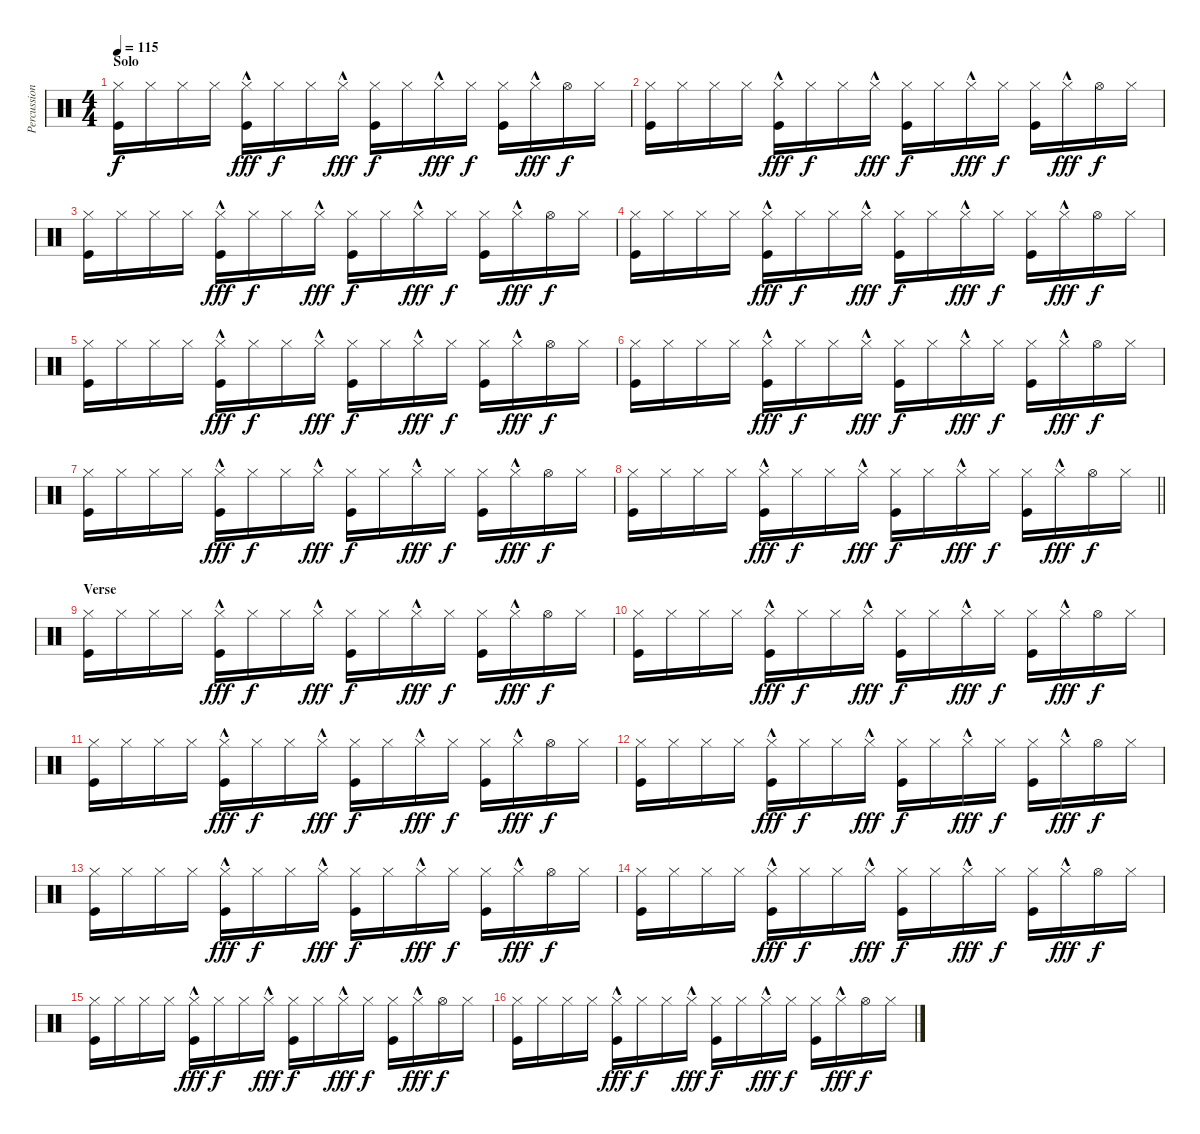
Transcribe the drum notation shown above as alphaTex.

\track ("Percussion" "Percussion") {instrument percussion}
\staff {score}
\articulation defaults
\ts (4 4)
\section ("" "Solo")
\tempo 115
\clef neutral
\ks c
("Hi-Hat (closed)" "Kick (hit)").16{dy f} "Hi-Hat (closed)".16 "Hi-Hat (closed)".16 "Hi-Hat (closed)".16 ("Hi-Hat (closed)"{hac} "Kick (hit)").16{dy fff} "Hi-Hat (closed)".16{dy f} "Hi-Hat (closed)".16 "Hi-Hat (closed)"{hac}.16{dy fff} ("Hi-Hat (closed)" "Kick (hit)").16{dy f} "Hi-Hat (closed)".16 "Hi-Hat (closed)"{hac}.16{dy fff} "Hi-Hat (closed)".16{dy f} ("Hi-Hat (closed)" "Kick (hit)").16 "Hi-Hat (closed)"{hac}.16{dy fff} "Hi-Hat (open)".16{dy f} "Hi-Hat (closed)".16 |
("Hi-Hat (closed)" "Kick (hit)").16 "Hi-Hat (closed)".16 "Hi-Hat (closed)".16 "Hi-Hat (closed)".16 ("Hi-Hat (closed)"{hac} "Kick (hit)").16{dy fff} "Hi-Hat (closed)".16{dy f} "Hi-Hat (closed)".16 "Hi-Hat (closed)"{hac}.16{dy fff} ("Hi-Hat (closed)" "Kick (hit)").16{dy f} "Hi-Hat (closed)".16 "Hi-Hat (closed)"{hac}.16{dy fff} "Hi-Hat (closed)".16{dy f} ("Hi-Hat (closed)" "Kick (hit)").16 "Hi-Hat (closed)"{hac}.16{dy fff} "Hi-Hat (open)".16{dy f} "Hi-Hat (closed)".16 |
("Hi-Hat (closed)" "Kick (hit)").16 "Hi-Hat (closed)".16 "Hi-Hat (closed)".16 "Hi-Hat (closed)".16 ("Hi-Hat (closed)"{hac} "Kick (hit)").16{dy fff} "Hi-Hat (closed)".16{dy f} "Hi-Hat (closed)".16 "Hi-Hat (closed)"{hac}.16{dy fff} ("Hi-Hat (closed)" "Kick (hit)").16{dy f} "Hi-Hat (closed)".16 "Hi-Hat (closed)"{hac}.16{dy fff} "Hi-Hat (closed)".16{dy f} ("Hi-Hat (closed)" "Kick (hit)").16 "Hi-Hat (closed)"{hac}.16{dy fff} "Hi-Hat (open)".16{dy f} "Hi-Hat (closed)".16 |
("Hi-Hat (closed)" "Kick (hit)").16 "Hi-Hat (closed)".16 "Hi-Hat (closed)".16 "Hi-Hat (closed)".16 ("Hi-Hat (closed)"{hac} "Kick (hit)").16{dy fff} "Hi-Hat (closed)".16{dy f} "Hi-Hat (closed)".16 "Hi-Hat (closed)"{hac}.16{dy fff} ("Hi-Hat (closed)" "Kick (hit)").16{dy f} "Hi-Hat (closed)".16 "Hi-Hat (closed)"{hac}.16{dy fff} "Hi-Hat (closed)".16{dy f} ("Hi-Hat (closed)" "Kick (hit)").16 "Hi-Hat (closed)"{hac}.16{dy fff} "Hi-Hat (open)".16{dy f} "Hi-Hat (closed)".16 |
("Hi-Hat (closed)" "Kick (hit)").16 "Hi-Hat (closed)".16 "Hi-Hat (closed)".16 "Hi-Hat (closed)".16 ("Hi-Hat (closed)"{hac} "Kick (hit)").16{dy fff} "Hi-Hat (closed)".16{dy f} "Hi-Hat (closed)".16 "Hi-Hat (closed)"{hac}.16{dy fff} ("Hi-Hat (closed)" "Kick (hit)").16{dy f} "Hi-Hat (closed)".16 "Hi-Hat (closed)"{hac}.16{dy fff} "Hi-Hat (closed)".16{dy f} ("Hi-Hat (closed)" "Kick (hit)").16 "Hi-Hat (closed)"{hac}.16{dy fff} "Hi-Hat (open)".16{dy f} "Hi-Hat (closed)".16 |
("Hi-Hat (closed)" "Kick (hit)").16 "Hi-Hat (closed)".16 "Hi-Hat (closed)".16 "Hi-Hat (closed)".16 ("Hi-Hat (closed)"{hac} "Kick (hit)").16{dy fff} "Hi-Hat (closed)".16{dy f} "Hi-Hat (closed)".16 "Hi-Hat (closed)"{hac}.16{dy fff} ("Hi-Hat (closed)" "Kick (hit)").16{dy f} "Hi-Hat (closed)".16 "Hi-Hat (closed)"{hac}.16{dy fff} "Hi-Hat (closed)".16{dy f} ("Hi-Hat (closed)" "Kick (hit)").16 "Hi-Hat (closed)"{hac}.16{dy fff} "Hi-Hat (open)".16{dy f} "Hi-Hat (closed)".16 |
("Hi-Hat (closed)" "Kick (hit)").16 "Hi-Hat (closed)".16 "Hi-Hat (closed)".16 "Hi-Hat (closed)".16 ("Hi-Hat (closed)"{hac} "Kick (hit)").16{dy fff} "Hi-Hat (closed)".16{dy f} "Hi-Hat (closed)".16 "Hi-Hat (closed)"{hac}.16{dy fff} ("Hi-Hat (closed)" "Kick (hit)").16{dy f} "Hi-Hat (closed)".16 "Hi-Hat (closed)"{hac}.16{dy fff} "Hi-Hat (closed)".16{dy f} ("Hi-Hat (closed)" "Kick (hit)").16 "Hi-Hat (closed)"{hac}.16{dy fff} "Hi-Hat (open)".16{dy f} "Hi-Hat (closed)".16 |
\barLineRight lightlight
("Hi-Hat (closed)" "Kick (hit)").16 "Hi-Hat (closed)".16 "Hi-Hat (closed)".16 "Hi-Hat (closed)".16 ("Hi-Hat (closed)"{hac} "Kick (hit)").16{dy fff} "Hi-Hat (closed)".16{dy f} "Hi-Hat (closed)".16 "Hi-Hat (closed)"{hac}.16{dy fff} ("Hi-Hat (closed)" "Kick (hit)").16{dy f} "Hi-Hat (closed)".16 "Hi-Hat (closed)"{hac}.16{dy fff} "Hi-Hat (closed)".16{dy f} ("Hi-Hat (closed)" "Kick (hit)").16 "Hi-Hat (closed)"{hac}.16{dy fff} "Hi-Hat (open)".16{dy f} "Hi-Hat (closed)".16 |
\section ("" "Verse")
("Hi-Hat (closed)" "Kick (hit)").16 "Hi-Hat (closed)".16 "Hi-Hat (closed)".16 "Hi-Hat (closed)".16 ("Hi-Hat (closed)"{hac} "Kick (hit)").16{dy fff} "Hi-Hat (closed)".16{dy f} "Hi-Hat (closed)".16 "Hi-Hat (closed)"{hac}.16{dy fff} ("Hi-Hat (closed)" "Kick (hit)").16{dy f} "Hi-Hat (closed)".16 "Hi-Hat (closed)"{hac}.16{dy fff} "Hi-Hat (closed)".16{dy f} ("Hi-Hat (closed)" "Kick (hit)").16 "Hi-Hat (closed)"{hac}.16{dy fff} "Hi-Hat (open)".16{dy f} "Hi-Hat (closed)".16 |
("Hi-Hat (closed)" "Kick (hit)").16 "Hi-Hat (closed)".16 "Hi-Hat (closed)".16 "Hi-Hat (closed)".16 ("Hi-Hat (closed)"{hac} "Kick (hit)").16{dy fff} "Hi-Hat (closed)".16{dy f} "Hi-Hat (closed)".16 "Hi-Hat (closed)"{hac}.16{dy fff} ("Hi-Hat (closed)" "Kick (hit)").16{dy f} "Hi-Hat (closed)".16 "Hi-Hat (closed)"{hac}.16{dy fff} "Hi-Hat (closed)".16{dy f} ("Hi-Hat (closed)" "Kick (hit)").16 "Hi-Hat (closed)"{hac}.16{dy fff} "Hi-Hat (open)".16{dy f} "Hi-Hat (closed)".16 |
("Hi-Hat (closed)" "Kick (hit)").16 "Hi-Hat (closed)".16 "Hi-Hat (closed)".16 "Hi-Hat (closed)".16 ("Hi-Hat (closed)"{hac} "Kick (hit)").16{dy fff} "Hi-Hat (closed)".16{dy f} "Hi-Hat (closed)".16 "Hi-Hat (closed)"{hac}.16{dy fff} ("Hi-Hat (closed)" "Kick (hit)").16{dy f} "Hi-Hat (closed)".16 "Hi-Hat (closed)"{hac}.16{dy fff} "Hi-Hat (closed)".16{dy f} ("Hi-Hat (closed)" "Kick (hit)").16 "Hi-Hat (closed)"{hac}.16{dy fff} "Hi-Hat (open)".16{dy f} "Hi-Hat (closed)".16 |
("Hi-Hat (closed)" "Kick (hit)").16 "Hi-Hat (closed)".16 "Hi-Hat (closed)".16 "Hi-Hat (closed)".16 ("Hi-Hat (closed)"{hac} "Kick (hit)").16{dy fff} "Hi-Hat (closed)".16{dy f} "Hi-Hat (closed)".16 "Hi-Hat (closed)"{hac}.16{dy fff} ("Hi-Hat (closed)" "Kick (hit)").16{dy f} "Hi-Hat (closed)".16 "Hi-Hat (closed)"{hac}.16{dy fff} "Hi-Hat (closed)".16{dy f} ("Hi-Hat (closed)" "Kick (hit)").16 "Hi-Hat (closed)"{hac}.16{dy fff} "Hi-Hat (open)".16{dy f} "Hi-Hat (closed)".16 |
("Hi-Hat (closed)" "Kick (hit)").16 "Hi-Hat (closed)".16 "Hi-Hat (closed)".16 "Hi-Hat (closed)".16 ("Hi-Hat (closed)"{hac} "Kick (hit)").16{dy fff} "Hi-Hat (closed)".16{dy f} "Hi-Hat (closed)".16 "Hi-Hat (closed)"{hac}.16{dy fff} ("Hi-Hat (closed)" "Kick (hit)").16{dy f} "Hi-Hat (closed)".16 "Hi-Hat (closed)"{hac}.16{dy fff} "Hi-Hat (closed)".16{dy f} ("Hi-Hat (closed)" "Kick (hit)").16 "Hi-Hat (closed)"{hac}.16{dy fff} "Hi-Hat (open)".16{dy f} "Hi-Hat (closed)".16 |
("Hi-Hat (closed)" "Kick (hit)").16 "Hi-Hat (closed)".16 "Hi-Hat (closed)".16 "Hi-Hat (closed)".16 ("Hi-Hat (closed)"{hac} "Kick (hit)").16{dy fff} "Hi-Hat (closed)".16{dy f} "Hi-Hat (closed)".16 "Hi-Hat (closed)"{hac}.16{dy fff} ("Hi-Hat (closed)" "Kick (hit)").16{dy f} "Hi-Hat (closed)".16 "Hi-Hat (closed)"{hac}.16{dy fff} "Hi-Hat (closed)".16{dy f} ("Hi-Hat (closed)" "Kick (hit)").16 "Hi-Hat (closed)"{hac}.16{dy fff} "Hi-Hat (open)".16{dy f} "Hi-Hat (closed)".16 |
("Hi-Hat (closed)" "Kick (hit)").16 "Hi-Hat (closed)".16 "Hi-Hat (closed)".16 "Hi-Hat (closed)".16 ("Hi-Hat (closed)"{hac} "Kick (hit)").16{dy fff} "Hi-Hat (closed)".16{dy f} "Hi-Hat (closed)".16 "Hi-Hat (closed)"{hac}.16{dy fff} ("Hi-Hat (closed)" "Kick (hit)").16{dy f} "Hi-Hat (closed)".16 "Hi-Hat (closed)"{hac}.16{dy fff} "Hi-Hat (closed)".16{dy f} ("Hi-Hat (closed)" "Kick (hit)").16 "Hi-Hat (closed)"{hac}.16{dy fff} "Hi-Hat (open)".16{dy f} "Hi-Hat (closed)".16 |
("Hi-Hat (closed)" "Kick (hit)").16 "Hi-Hat (closed)".16 "Hi-Hat (closed)".16 "Hi-Hat (closed)".16 ("Hi-Hat (closed)"{hac} "Kick (hit)").16{dy fff} "Hi-Hat (closed)".16{dy f} "Hi-Hat (closed)".16 "Hi-Hat (closed)"{hac}.16{dy fff} ("Hi-Hat (closed)" "Kick (hit)").16{dy f} "Hi-Hat (closed)".16 "Hi-Hat (closed)"{hac}.16{dy fff} "Hi-Hat (closed)".16{dy f} ("Hi-Hat (closed)" "Kick (hit)").16 "Hi-Hat (closed)"{hac}.16{dy fff} "Hi-Hat (open)".16{dy f} "Hi-Hat (closed)".16
